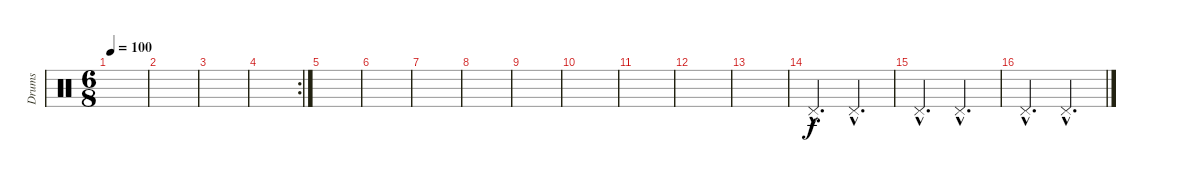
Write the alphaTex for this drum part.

\track ("Drums" "Drums") {instrument percussion}
\staff {score}
\articulation defaults
\ts (6 8)
\tempo 100
\clef neutral
\ks c
|
|
|
\rc 2
|
|
|
|
|
|
|
|
|
|
"Pedal Hi-Hat (hit)"{hac}.4{d} "Pedal Hi-Hat (hit)"{hac}.4{d} |
"Pedal Hi-Hat (hit)"{hac}.4{d} "Pedal Hi-Hat (hit)"{hac}.4{d} |
"Pedal Hi-Hat (hit)"{hac}.4{d} "Pedal Hi-Hat (hit)"{hac}.4{d}
